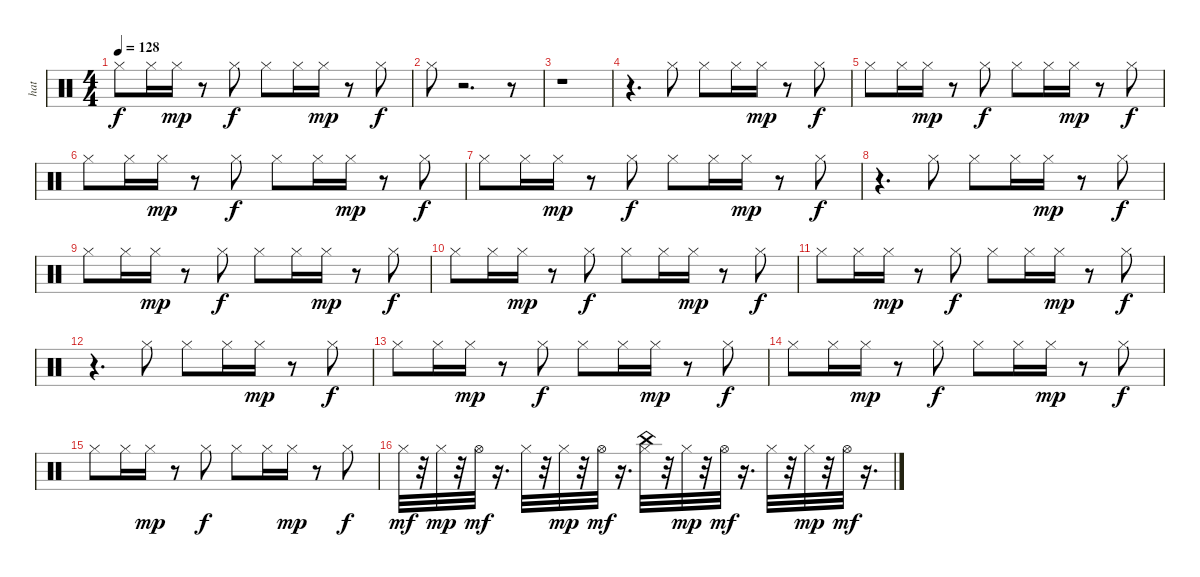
\track ("hat" "hat") {instrument percussion}
\staff {score}
\articulation defaults
\ts (4 4)
\tempo 128
\clef neutral
\ks c "Hi-Hat (closed)".8{dy f} "Hi-Hat (closed)".16 "Hi-Hat (closed)".16{dy mp}
r.8 "Hi-Hat (closed)".8{dy f} "Hi-Hat (closed)".8 "Hi-Hat (closed)".16 "Hi-Hat (closed)".16{dy mp} r.8 "Hi-Hat (closed)".8{dy f} |
"Hi-Hat (closed)".8 r.2{d} r.8 |
r.1 |
r.4{d} "Hi-Hat (closed)".8 "Hi-Hat (closed)".8 "Hi-Hat (closed)".16 "Hi-Hat (closed)".16{dy mp} r.8 "Hi-Hat (closed)".8{dy f} |
"Hi-Hat (closed)".8 "Hi-Hat (closed)".16 "Hi-Hat (closed)".16{dy mp} r.8 "Hi-Hat (closed)".8{dy f} "Hi-Hat (closed)".8 "Hi-Hat (closed)".16 "Hi-Hat (closed)".16{dy mp} r.8 "Hi-Hat (closed)".8{dy f} |
"Hi-Hat (closed)".8 "Hi-Hat (closed)".16 "Hi-Hat (closed)".16{dy mp} r.8 "Hi-Hat (closed)".8{dy f} "Hi-Hat (closed)".8 "Hi-Hat (closed)".16 "Hi-Hat (closed)".16{dy mp} r.8 "Hi-Hat (closed)".8{dy f} |
"Hi-Hat (closed)".8 "Hi-Hat (closed)".16 "Hi-Hat (closed)".16{dy mp} r.8 "Hi-Hat (closed)".8{dy f} "Hi-Hat (closed)".8 "Hi-Hat (closed)".16 "Hi-Hat (closed)".16{dy mp} r.8 "Hi-Hat (closed)".8{dy f} |
r.4{d} "Hi-Hat (closed)".8 "Hi-Hat (closed)".8 "Hi-Hat (closed)".16 "Hi-Hat (closed)".16{dy mp} r.8 "Hi-Hat (closed)".8{dy f} |
"Hi-Hat (closed)".8 "Hi-Hat (closed)".16 "Hi-Hat (closed)".16{dy mp} r.8 "Hi-Hat (closed)".8{dy f} "Hi-Hat (closed)".8 "Hi-Hat (closed)".16 "Hi-Hat (closed)".16{dy mp} r.8 "Hi-Hat (closed)".8{dy f} |
"Hi-Hat (closed)".8 "Hi-Hat (closed)".16 "Hi-Hat (closed)".16{dy mp} r.8 "Hi-Hat (closed)".8{dy f} "Hi-Hat (closed)".8 "Hi-Hat (closed)".16 "Hi-Hat (closed)".16{dy mp} r.8 "Hi-Hat (closed)".8{dy f} |
"Hi-Hat (closed)".8 "Hi-Hat (closed)".16 "Hi-Hat (closed)".16{dy mp} r.8 "Hi-Hat (closed)".8{dy f} "Hi-Hat (closed)".8 "Hi-Hat (closed)".16 "Hi-Hat (closed)".16{dy mp} r.8 "Hi-Hat (closed)".8{dy f} |
r.4{d} "Hi-Hat (closed)".8 "Hi-Hat (closed)".8 "Hi-Hat (closed)".16 "Hi-Hat (closed)".16{dy mp} r.8 "Hi-Hat (closed)".8{dy f} |
"Hi-Hat (closed)".8 "Hi-Hat (closed)".16 "Hi-Hat (closed)".16{dy mp} r.8 "Hi-Hat (closed)".8{dy f} "Hi-Hat (closed)".8 "Hi-Hat (closed)".16 "Hi-Hat (closed)".16{dy mp} r.8 "Hi-Hat (closed)".8{dy f} |
"Hi-Hat (closed)".8 "Hi-Hat (closed)".16 "Hi-Hat (closed)".16{dy mp} r.8 "Hi-Hat (closed)".8{dy f} "Hi-Hat (closed)".8 "Hi-Hat (closed)".16 "Hi-Hat (closed)".16{dy mp} r.8 "Hi-Hat (closed)".8{dy f} |
"Hi-Hat (closed)".8 "Hi-Hat (closed)".16 "Hi-Hat (closed)".16{dy mp} r.8 "Hi-Hat (closed)".8{dy f} "Hi-Hat (closed)".8 "Hi-Hat (closed)".16 "Hi-Hat (closed)".16{dy mp} r.8 "Hi-Hat (closed)".8{dy f} |
"Hi-Hat (closed)".32{dy mf} r.32 "Hi-Hat (closed)".32{dy mp} r.32 "Hi-Hat (open)".32{dy mf} r.16{d} "Hi-Hat (closed)".32 r.32 "Hi-Hat (closed)".32{dy mp} r.32 "Hi-Hat (open)".32{dy mf} r.16{d} ("China (hit)" "Hi-Hat (closed)").32 r.32 "Hi-Hat (closed)".32{dy mp} r.32 "Hi-Hat (open)".32{dy mf} r.16{d} "Hi-Hat (closed)".32 r.32 "Hi-Hat (closed)".32{dy mp} r.32 "Hi-Hat (open)".32{dy mf} r.16{d}
